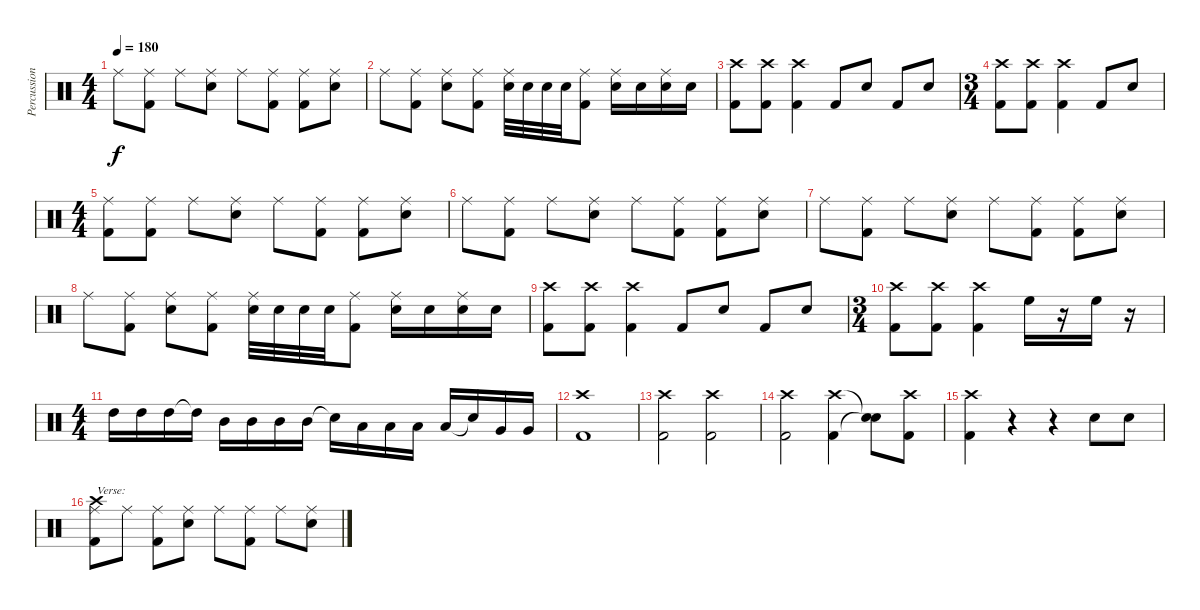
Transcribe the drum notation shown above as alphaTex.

\track ("Percussion" "Percussion") {instrument percussion}
\staff {score}
\articulation defaults
\ts (4 4)
\tempo 180
\clef neutral
\ks c "Ride (middle)".8{dy f}
("Ride (middle)" "Kick (hit) 2").8 "Ride (middle)".8 ("Ride (middle)" "Electric Snare (hit)").8 "Ride (middle)".8 ("Ride (middle)" "Kick (hit) 2").8 ("Ride (middle)" "Kick (hit) 2").8 ("Ride (middle)" "Electric Snare (hit)").8 |
"Ride (middle)".8 ("Ride (middle)" "Kick (hit) 2").8 ("Ride (middle)" "Electric Snare (hit)").8 ("Ride (middle)" "Kick (hit) 2").8 ("Ride (middle)" "Electric Snare (hit)").32 "Electric Snare (hit)".32 "Electric Snare (hit)".32 "Electric Snare (hit)".32 ("Ride (middle)" "Kick (hit) 2").8 ("Ride (middle)" "Electric Snare (hit)").16 "Electric Snare (hit)".16 ("Ride (middle)" "Electric Snare (hit)").16 "Electric Snare (hit)".16 |
("Crash high (hit)" "Kick (hit) 2").8 ("Crash high (hit)" "Kick (hit) 2").8 ("Crash high (hit)" "Kick (hit) 2").4 "Kick (hit) 2".8 "Electric Snare (hit)".8 "Kick (hit) 2".8 "Electric Snare (hit)".8 |
\ts (3 4)
("Crash high (hit)" "Kick (hit) 2").8 ("Crash high (hit)" "Kick (hit) 2").8 ("Crash high (hit)" "Kick (hit) 2").4 "Kick (hit) 2".8 "Electric Snare (hit)".8 |
\ts (4 4)
("Ride (middle)" "Kick (hit) 2").8 ("Ride (middle)" "Kick (hit) 2").8 "Ride (middle)".8 ("Ride (middle)" "Electric Snare (hit)").8 "Ride (middle)".8 ("Ride (middle)" "Kick (hit) 2").8 ("Ride (middle)" "Kick (hit) 2").8 ("Ride (middle)" "Electric Snare (hit)").8 |
"Ride (middle)".8 ("Ride (middle)" "Kick (hit) 2").8 "Ride (middle)".8 ("Ride (middle)" "Electric Snare (hit)").8 "Ride (middle)".8 ("Ride (middle)" "Kick (hit) 2").8 ("Ride (middle)" "Kick (hit) 2").8 ("Ride (middle)" "Electric Snare (hit)").8 |
"Ride (middle)".8 ("Ride (middle)" "Kick (hit) 2").8 "Ride (middle)".8 ("Ride (middle)" "Electric Snare (hit)").8 "Ride (middle)".8 ("Ride (middle)" "Kick (hit) 2").8 ("Ride (middle)" "Kick (hit) 2").8 ("Ride (middle)" "Electric Snare (hit)").8 |
"Ride (middle)".8 ("Ride (middle)" "Kick (hit) 2").8 ("Ride (middle)" "Electric Snare (hit)").8 ("Ride (middle)" "Kick (hit) 2").8 ("Ride (middle)" "Electric Snare (hit)").32 "Electric Snare (hit)".32 "Electric Snare (hit)".32 "Electric Snare (hit)".32 ("Ride (middle)" "Kick (hit) 2").8 ("Ride (middle)" "Electric Snare (hit)").16 "Electric Snare (hit)".16 ("Ride (middle)" "Electric Snare (hit)").16 "Electric Snare (hit)".16 |
("Crash high (hit)" "Kick (hit) 2").8 ("Crash high (hit)" "Kick (hit) 2").8 ("Crash high (hit)" "Kick (hit) 2").4 "Kick (hit) 2".8 "Electric Snare (hit)".8 "Kick (hit) 2".8 "Electric Snare (hit)".8 |
\ts (3 4)
("Crash high (hit)" "Kick (hit) 2").8 ("Crash high (hit)" "Kick (hit) 2").8 ("Crash high (hit)" "Kick (hit) 2").4 "High Floor Tom (hit)".16 r.16 "High Floor Tom (hit)".16 r.16 |
\ts (4 4)
"High Tom (hit)".16 "High Tom (hit)".16 "High Tom (hit)".16 "High Tom (hit)"{t}.16 "Mid Tom (hit)".16 "Mid Tom (hit)".16 "Mid Tom (hit)".16 "Mid Tom (hit)".16 "Snare (hit)"{t}.16 "Low Tom (hit)".16 "Low Tom (hit)".16 "Low Tom (hit)".16 "Low Tom (hit)".16 "Snare (hit)"{t}.16 "Very Low Tom (hit)".16 "Very Low Tom (hit)".16 |
("Crash high (hit)" "Kick (hit) 2").1 |
("Crash high (hit)" "Kick (hit) 2").2 ("Crash high (hit)" "Kick (hit) 2").2 |
("Crash high (hit)" "Kick (hit) 2").2 ("Crash high (hit)" "Kick (hit) 2").4 ("Snare (hit)"{t} "Snare (hit)"{t}).8 ("Crash high (hit)" "Kick (hit) 2").8 |
("Crash high (hit)" "Kick (hit) 2").4 r.4 r.4 "Electric Snare (hit)".8 "Electric Snare (hit)".8 |
("Ride (middle)" "Crash high (hit)" "Kick (hit) 2").8{txt "Verse:"} "Ride (middle)".8 ("Ride (middle)" "Kick (hit) 2").8 ("Ride (middle)" "Electric Snare (hit)").8 "Ride (middle)".8 ("Ride (middle)" "Kick (hit) 2").8 "Ride (middle)".8 ("Ride (middle)" "Electric Snare (hit)").8
